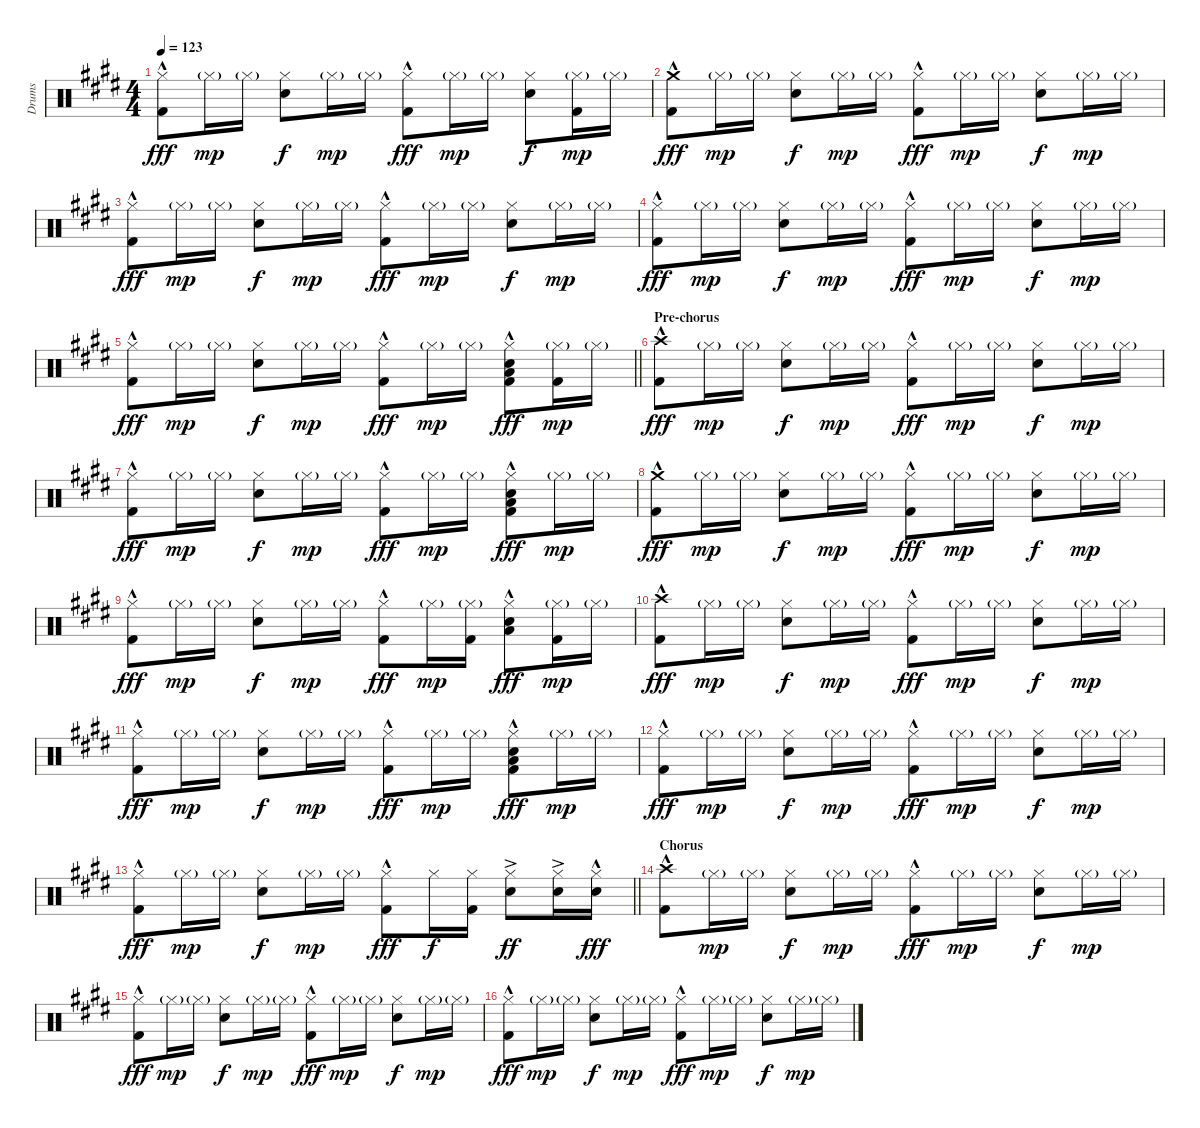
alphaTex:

\track ("Drums" "Drums") {instrument percussion}
\staff {score}
\articulation defaults
\ts (4 4)
\tempo 123
\clef neutral
\ks c#minor
("Hi-Hat (closed)"{hac} "Kick (hit) 2").8{dy fff} "Hi-Hat (closed)"{g}.16{dy mp} "Hi-Hat (closed)"{g}.16 ("Hi-Hat (closed)" "Snare (hit) 2").8{dy f} "Hi-Hat (closed)"{g}.16{dy mp} "Hi-Hat (closed)"{g}.16 ("Hi-Hat (closed)"{hac} "Kick (hit) 2"{hac}).8{dy fff} "Hi-Hat (closed)"{g}.16{dy mp} "Hi-Hat (closed)"{g}.16 ("Hi-Hat (closed)" "Snare (hit) 2").8{dy f} ("Hi-Hat (closed)"{g} "Kick (hit) 2").16{dy mp} "Hi-Hat (closed)"{g}.16 |
("Crash medium (hit)" "Kick (hit) 2"{hac}).8{dy fff} "Hi-Hat (closed)"{g}.16{dy mp} "Hi-Hat (closed)"{g}.16 ("Hi-Hat (closed)" "Snare (hit) 2").8{dy f} "Hi-Hat (closed)"{g}.16{dy mp} "Hi-Hat (closed)"{g}.16 ("Hi-Hat (closed)"{hac} "Kick (hit) 2"{hac}).8{dy fff} "Hi-Hat (closed)"{g}.16{dy mp} "Hi-Hat (closed)"{g}.16 ("Hi-Hat (closed)" "Snare (hit) 2").8{dy f} "Hi-Hat (closed)"{g}.16{dy mp} "Hi-Hat (closed)"{g}.16 |
("Hi-Hat (closed)"{hac} "Kick (hit) 2").8{dy fff} "Hi-Hat (closed)"{g}.16{dy mp} "Hi-Hat (closed)"{g}.16 ("Hi-Hat (closed)" "Snare (hit) 2").8{dy f} "Hi-Hat (closed)"{g}.16{dy mp} "Hi-Hat (closed)"{g}.16 ("Hi-Hat (closed)"{hac} "Kick (hit) 2"{hac}).8{dy fff} "Hi-Hat (closed)"{g}.16{dy mp} "Hi-Hat (closed)"{g}.16 ("Hi-Hat (closed)" "Snare (hit) 2").8{dy f} "Hi-Hat (closed)"{g}.16{dy mp} "Hi-Hat (closed)"{g}.16 |
("Hi-Hat (closed)"{hac} "Kick (hit) 2").8{dy fff} "Hi-Hat (closed)"{g}.16{dy mp} "Hi-Hat (closed)"{g}.16 ("Hi-Hat (closed)" "Snare (hit) 2").8{dy f} "Hi-Hat (closed)"{g}.16{dy mp} "Hi-Hat (closed)"{g}.16 ("Hi-Hat (closed)"{hac} "Kick (hit) 2"{hac}).8{dy fff} "Hi-Hat (closed)"{g}.16{dy mp} "Hi-Hat (closed)"{g}.16 ("Hi-Hat (closed)" "Snare (hit) 2").8{dy f} "Hi-Hat (closed)"{g}.16{dy mp} "Hi-Hat (closed)"{g}.16 |
\barLineRight lightlight
("Hi-Hat (closed)"{hac} "Kick (hit) 2").8{dy fff} "Hi-Hat (closed)"{g}.16{dy mp} "Hi-Hat (closed)"{g}.16 ("Hi-Hat (closed)" "Snare (hit) 2").8{dy f} "Hi-Hat (closed)"{g}.16{dy mp} "Hi-Hat (closed)"{g}.16 ("Hi-Hat (closed)"{hac} "Kick (hit) 2"{hac}).8{dy fff} "Hi-Hat (closed)"{g}.16{dy mp} "Hi-Hat (closed)"{g}.16 ("Hi-Hat (closed)"{hac} "Low Floor Tom (hit)"{hac} "Snare (hit) 2"{hac} "Kick (hit) 2"{hac}).8{dy fff} ("Hi-Hat (closed)"{g} "Kick (hit) 2").16{dy mp} "Hi-Hat (closed)"{g}.16 |
\section ("" "Pre-chorus")
("Crash high (hit)" "Kick (hit) 2"{hac}).8{dy fff} "Hi-Hat (closed)"{g}.16{dy mp} "Hi-Hat (closed)"{g}.16 ("Hi-Hat (closed)" "Snare (hit) 2").8{dy f} "Hi-Hat (closed)"{g}.16{dy mp} "Hi-Hat (closed)"{g}.16 ("Hi-Hat (closed)"{hac} "Kick (hit) 2"{hac}).8{dy fff} "Hi-Hat (closed)"{g}.16{dy mp} "Hi-Hat (closed)"{g}.16 ("Hi-Hat (closed)" "Snare (hit) 2").8{dy f} "Hi-Hat (closed)"{g}.16{dy mp} "Hi-Hat (closed)"{g}.16 |
("Hi-Hat (closed)"{hac} "Kick (hit) 2").8{dy fff} "Hi-Hat (closed)"{g}.16{dy mp} "Hi-Hat (closed)"{g}.16 ("Hi-Hat (closed)" "Snare (hit) 2").8{dy f} "Hi-Hat (closed)"{g}.16{dy mp} "Hi-Hat (closed)"{g}.16 ("Hi-Hat (closed)"{hac} "Kick (hit) 2"{hac}).8{dy fff} "Hi-Hat (closed)"{g}.16{dy mp} "Hi-Hat (closed)"{g}.16 ("Hi-Hat (closed)" "Low Floor Tom (hit)"{hac} "Snare (hit) 2"{hac} "Kick (hit) 2"{hac}).8{dy fff} "Hi-Hat (closed)"{g}.16{dy mp} "Hi-Hat (closed)"{g}.16 |
("Crash medium (hit)" "Kick (hit) 2"{hac}).8{dy fff} "Hi-Hat (closed)"{g}.16{dy mp} "Hi-Hat (closed)"{g}.16 ("Hi-Hat (closed)" "Snare (hit) 2").8{dy f} "Hi-Hat (closed)"{g}.16{dy mp} "Hi-Hat (closed)"{g}.16 ("Hi-Hat (closed)"{hac} "Kick (hit) 2"{hac}).8{dy fff} "Hi-Hat (closed)"{g}.16{dy mp} "Hi-Hat (closed)"{g}.16 ("Hi-Hat (closed)" "Snare (hit) 2").8{dy f} "Hi-Hat (closed)"{g}.16{dy mp} "Hi-Hat (closed)"{g}.16 |
("Hi-Hat (closed)"{hac} "Kick (hit) 2").8{dy fff} "Hi-Hat (closed)"{g}.16{dy mp} "Hi-Hat (closed)"{g}.16 ("Hi-Hat (closed)" "Snare (hit) 2").8{dy f} "Hi-Hat (closed)"{g}.16{dy mp} "Hi-Hat (closed)"{g}.16 ("Hi-Hat (closed)"{hac} "Kick (hit) 2"{hac}).8{dy fff} "Hi-Hat (closed)"{g}.16{dy mp} ("Hi-Hat (closed)"{g} "Kick (hit) 2").16 ("Hi-Hat (closed)" "Low Floor Tom (hit)"{hac} "Snare (hit) 2"{hac}).8{dy fff} ("Hi-Hat (closed)"{g} "Kick (hit) 2").16{dy mp} "Hi-Hat (closed)"{g}.16 |
("Crash high (hit)" "Kick (hit) 2"{hac}).8{dy fff} "Hi-Hat (closed)"{g}.16{dy mp} "Hi-Hat (closed)"{g}.16 ("Hi-Hat (closed)" "Snare (hit) 2").8{dy f} "Hi-Hat (closed)"{g}.16{dy mp} "Hi-Hat (closed)"{g}.16 ("Hi-Hat (closed)"{hac} "Kick (hit) 2"{hac}).8{dy fff} "Hi-Hat (closed)"{g}.16{dy mp} "Hi-Hat (closed)"{g}.16 ("Hi-Hat (closed)" "Snare (hit) 2").8{dy f} "Hi-Hat (closed)"{g}.16{dy mp} "Hi-Hat (closed)"{g}.16 |
("Hi-Hat (closed)"{hac} "Kick (hit) 2").8{dy fff} "Hi-Hat (closed)"{g}.16{dy mp} "Hi-Hat (closed)"{g}.16 ("Hi-Hat (closed)" "Snare (hit) 2").8{dy f} "Hi-Hat (closed)"{g}.16{dy mp} "Hi-Hat (closed)"{g}.16 ("Hi-Hat (closed)"{hac} "Kick (hit) 2"{hac}).8{dy fff} "Hi-Hat (closed)"{g}.16{dy mp} "Hi-Hat (closed)"{g}.16 ("Hi-Hat (closed)" "Low Floor Tom (hit)"{hac} "Snare (hit) 2"{hac} "Kick (hit) 2"{hac}).8{dy fff} "Hi-Hat (closed)"{g}.16{dy mp} "Hi-Hat (closed)"{g}.16 |
("Hi-Hat (closed)"{hac} "Kick (hit) 2").8{dy fff} "Hi-Hat (closed)"{g}.16{dy mp} "Hi-Hat (closed)"{g}.16 ("Hi-Hat (closed)" "Snare (hit) 2").8{dy f} "Hi-Hat (closed)"{g}.16{dy mp} "Hi-Hat (closed)"{g}.16 ("Hi-Hat (closed)"{hac} "Kick (hit) 2"{hac}).8{dy fff} "Hi-Hat (closed)"{g}.16{dy mp} "Hi-Hat (closed)"{g}.16 ("Hi-Hat (closed)" "Snare (hit) 2").8{dy f} "Hi-Hat (closed)"{g}.16{dy mp} "Hi-Hat (closed)"{g}.16 |
\barLineRight lightlight
("Hi-Hat (closed)"{hac} "Kick (hit) 2").8{dy fff} "Hi-Hat (closed)"{g}.16{dy mp} "Hi-Hat (closed)"{g}.16 ("Hi-Hat (closed)" "Snare (hit) 2").8{dy f} "Hi-Hat (closed)"{g}.16{dy mp} "Hi-Hat (closed)"{g}.16 ("Hi-Hat (closed)"{hac} "Kick (hit) 2"{hac}).8{dy fff} "Hi-Hat (closed)".16{dy f} ("Hi-Hat (closed)" "Kick (hit) 2").16 ("Hi-Hat (closed)"{ac} "Snare (hit) 2").8{dy ff} ("Hi-Hat (closed)"{ac} "Snare (hit) 2").16 ("Hi-Hat (closed)"{hac} "Snare (hit) 2").16{dy fff} |
\section ("" "Chorus")
("Crash high (hit)" "Kick (hit) 2"{hac}).8 "Hi-Hat (closed)"{g}.16{dy mp} "Hi-Hat (closed)"{g}.16 ("Hi-Hat (closed)" "Snare (hit) 2").8{dy f} "Hi-Hat (closed)"{g}.16{dy mp} "Hi-Hat (closed)"{g}.16 ("Hi-Hat (closed)"{hac} "Kick (hit) 2"{hac}).8{dy fff} "Hi-Hat (closed)"{g}.16{dy mp} "Hi-Hat (closed)"{g}.16 ("Hi-Hat (closed)" "Snare (hit) 2").8{dy f} "Hi-Hat (closed)"{g}.16{dy mp} "Hi-Hat (closed)"{g}.16 |
("Hi-Hat (closed)"{hac} "Kick (hit) 2").8{dy fff} "Hi-Hat (closed)"{g}.16{dy mp} "Hi-Hat (closed)"{g}.16 ("Hi-Hat (closed)" "Snare (hit) 2").8{dy f} "Hi-Hat (closed)"{g}.16{dy mp} "Hi-Hat (closed)"{g}.16 ("Hi-Hat (closed)"{hac} "Kick (hit) 2"{hac}).8{dy fff} "Hi-Hat (closed)"{g}.16{dy mp} "Hi-Hat (closed)"{g}.16 ("Hi-Hat (closed)" "Snare (hit) 2").8{dy f} "Hi-Hat (closed)"{g}.16{dy mp} "Hi-Hat (closed)"{g}.16 |
("Hi-Hat (closed)"{hac} "Kick (hit) 2").8{dy fff} "Hi-Hat (closed)"{g}.16{dy mp} "Hi-Hat (closed)"{g}.16 ("Hi-Hat (closed)" "Snare (hit) 2").8{dy f} "Hi-Hat (closed)"{g}.16{dy mp} "Hi-Hat (closed)"{g}.16 ("Hi-Hat (closed)"{hac} "Kick (hit) 2"{hac}).8{dy fff} "Hi-Hat (closed)"{g}.16{dy mp} "Hi-Hat (closed)"{g}.16 ("Hi-Hat (closed)" "Snare (hit) 2").8{dy f} "Hi-Hat (closed)"{g}.16{dy mp} "Hi-Hat (closed)"{g}.16
